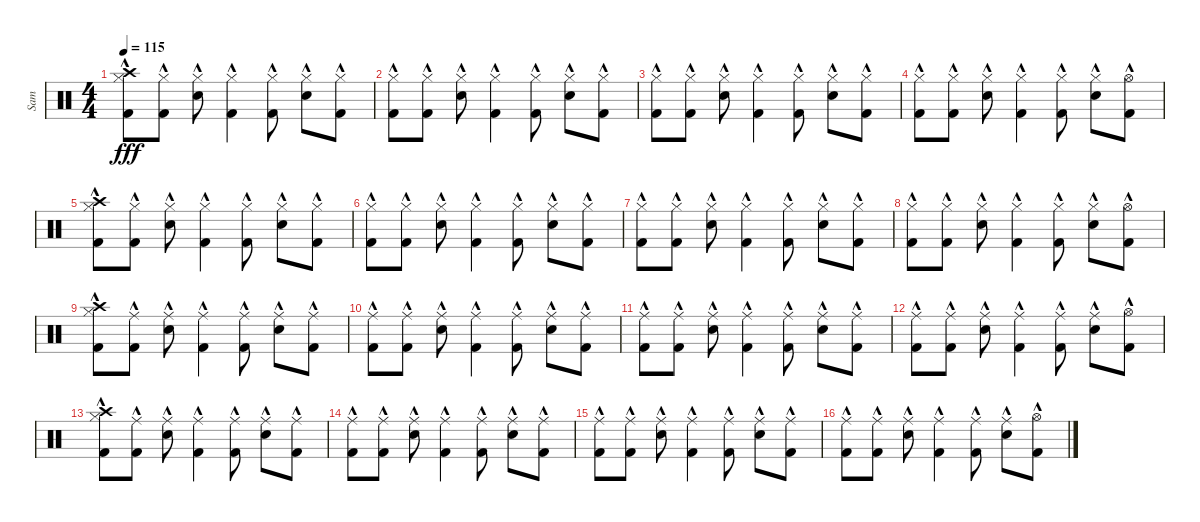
\track ("Sam" "Sam") {instrument percussion}
\staff {score}
\articulation defaults
\ts (4 4)
\tempo 115
\clef neutral
\ks c
("Crash high (hit)" "Hi-Hat (closed)" "Kick (hit) 2"{hac}).8{dy fff} ("Hi-Hat (closed)" "Kick (hit) 2"{hac}).8 ("Hi-Hat (closed)" "Electric Snare (hit)"{hac}).8 ("Hi-Hat (closed)" "Kick (hit) 2"{hac}).4 ("Hi-Hat (closed)" "Kick (hit) 2"{hac}).8 ("Hi-Hat (closed)" "Electric Snare (hit)"{hac}).8 ("Hi-Hat (closed)" "Kick (hit) 2"{hac}).8 |
("Hi-Hat (closed)" "Kick (hit) 2"{hac}).8 ("Hi-Hat (closed)" "Kick (hit) 2"{hac}).8 ("Hi-Hat (closed)" "Electric Snare (hit)"{hac}).8 ("Hi-Hat (closed)" "Kick (hit) 2"{hac}).4 ("Hi-Hat (closed)" "Kick (hit) 2"{hac}).8 ("Hi-Hat (closed)" "Electric Snare (hit)"{hac}).8 ("Hi-Hat (closed)" "Kick (hit) 2"{hac}).8 |
("Hi-Hat (closed)" "Kick (hit) 2"{hac}).8 ("Hi-Hat (closed)" "Kick (hit) 2"{hac}).8 ("Hi-Hat (closed)" "Electric Snare (hit)"{hac}).8 ("Hi-Hat (closed)" "Kick (hit) 2"{hac}).4 ("Hi-Hat (closed)" "Kick (hit) 2"{hac}).8 ("Hi-Hat (closed)" "Electric Snare (hit)"{hac}).8 ("Hi-Hat (closed)" "Kick (hit) 2"{hac}).8 |
("Hi-Hat (closed)" "Kick (hit) 2"{hac}).8 ("Hi-Hat (closed)" "Kick (hit) 2"{hac}).8 ("Hi-Hat (closed)" "Electric Snare (hit)"{hac}).8 ("Hi-Hat (closed)" "Kick (hit) 2"{hac}).4 ("Hi-Hat (closed)" "Kick (hit) 2"{hac}).8 ("Hi-Hat (closed)" "Electric Snare (hit)"{hac}).8 ("Hi-Hat (open)" "Kick (hit) 2"{hac}).8 |
("Crash high (hit)" "Hi-Hat (closed)" "Kick (hit) 2"{hac}).8 ("Hi-Hat (closed)" "Kick (hit) 2"{hac}).8 ("Hi-Hat (closed)" "Electric Snare (hit)"{hac}).8 ("Hi-Hat (closed)" "Kick (hit) 2"{hac}).4 ("Hi-Hat (closed)" "Kick (hit) 2"{hac}).8 ("Hi-Hat (closed)" "Electric Snare (hit)"{hac}).8 ("Hi-Hat (closed)" "Kick (hit) 2"{hac}).8 |
("Hi-Hat (closed)" "Kick (hit) 2"{hac}).8 ("Hi-Hat (closed)" "Kick (hit) 2"{hac}).8 ("Hi-Hat (closed)" "Electric Snare (hit)"{hac}).8 ("Hi-Hat (closed)" "Kick (hit) 2"{hac}).4 ("Hi-Hat (closed)" "Kick (hit) 2"{hac}).8 ("Hi-Hat (closed)" "Electric Snare (hit)"{hac}).8 ("Hi-Hat (closed)" "Kick (hit) 2"{hac}).8 |
("Hi-Hat (closed)" "Kick (hit) 2"{hac}).8 ("Hi-Hat (closed)" "Kick (hit) 2"{hac}).8 ("Hi-Hat (closed)" "Electric Snare (hit)"{hac}).8 ("Hi-Hat (closed)" "Kick (hit) 2"{hac}).4 ("Hi-Hat (closed)" "Kick (hit) 2"{hac}).8 ("Hi-Hat (closed)" "Electric Snare (hit)"{hac}).8 ("Hi-Hat (closed)" "Kick (hit) 2"{hac}).8 |
("Hi-Hat (closed)" "Kick (hit) 2"{hac}).8 ("Hi-Hat (closed)" "Kick (hit) 2"{hac}).8 ("Hi-Hat (closed)" "Electric Snare (hit)"{hac}).8 ("Hi-Hat (closed)" "Kick (hit) 2"{hac}).4 ("Hi-Hat (closed)" "Kick (hit) 2"{hac}).8 ("Hi-Hat (closed)" "Electric Snare (hit)"{hac}).8 ("Hi-Hat (open)" "Kick (hit) 2"{hac}).8 |
("Crash high (hit)" "Hi-Hat (closed)" "Kick (hit) 2"{hac}).8 ("Ride (middle)" "Kick (hit) 2"{hac}).8 ("Ride (middle)" "Electric Snare (hit)"{hac}).8 ("Ride (middle)" "Kick (hit) 2"{hac}).4 ("Ride (middle)" "Kick (hit) 2"{hac}).8 ("Ride (middle)" "Electric Snare (hit)"{hac}).8 ("Ride (middle)" "Kick (hit) 2"{hac}).8 |
("Ride (middle)" "Kick (hit) 2"{hac}).8 ("Ride (middle)" "Kick (hit) 2"{hac}).8 ("Ride (middle)" "Electric Snare (hit)"{hac}).8 ("Ride (middle)" "Kick (hit) 2"{hac}).4 ("Ride (middle)" "Kick (hit) 2"{hac}).8 ("Ride (middle)" "Electric Snare (hit)"{hac}).8 ("Ride (middle)" "Kick (hit) 2"{hac}).8 |
("Ride (middle)" "Kick (hit) 2"{hac}).8 ("Ride (middle)" "Kick (hit) 2"{hac}).8 ("Ride (middle)" "Electric Snare (hit)"{hac}).8 ("Ride (middle)" "Kick (hit) 2"{hac}).4 ("Ride (middle)" "Kick (hit) 2"{hac}).8 ("Ride (middle)" "Electric Snare (hit)"{hac}).8 ("Ride (middle)" "Kick (hit) 2"{hac}).8 |
("Ride (middle)" "Kick (hit) 2"{hac}).8 ("Ride (middle)" "Kick (hit) 2"{hac}).8 ("Ride (middle)" "Electric Snare (hit)"{hac}).8 ("Ride (middle)" "Kick (hit) 2"{hac}).4 ("Ride (middle)" "Kick (hit) 2"{hac}).8 ("Ride (middle)" "Electric Snare (hit)"{hac}).8 ("Hi-Hat (open)" "Kick (hit) 2"{hac}).8 |
("Crash high (hit)" "Hi-Hat (closed)" "Kick (hit) 2"{hac}).8 ("Ride (middle)" "Kick (hit) 2"{hac}).8 ("Ride (middle)" "Electric Snare (hit)"{hac}).8 ("Ride (middle)" "Kick (hit) 2"{hac}).4 ("Ride (middle)" "Kick (hit) 2"{hac}).8 ("Ride (middle)" "Electric Snare (hit)"{hac}).8 ("Ride (middle)" "Kick (hit) 2"{hac}).8 |
("Ride (middle)" "Kick (hit) 2"{hac}).8 ("Ride (middle)" "Kick (hit) 2"{hac}).8 ("Ride (middle)" "Electric Snare (hit)"{hac}).8 ("Ride (middle)" "Kick (hit) 2"{hac}).4 ("Ride (middle)" "Kick (hit) 2"{hac}).8 ("Ride (middle)" "Electric Snare (hit)"{hac}).8 ("Ride (middle)" "Kick (hit) 2"{hac}).8 |
("Ride (middle)" "Kick (hit) 2"{hac}).8 ("Ride (middle)" "Kick (hit) 2"{hac}).8 ("Ride (middle)" "Electric Snare (hit)"{hac}).8 ("Ride (middle)" "Kick (hit) 2"{hac}).4 ("Ride (middle)" "Kick (hit) 2"{hac}).8 ("Ride (middle)" "Electric Snare (hit)"{hac}).8 ("Ride (middle)" "Kick (hit) 2"{hac}).8 |
("Ride (middle)" "Kick (hit) 2"{hac}).8 ("Ride (middle)" "Kick (hit) 2"{hac}).8 ("Ride (middle)" "Electric Snare (hit)"{hac}).8 ("Ride (middle)" "Kick (hit) 2"{hac}).4 ("Ride (middle)" "Kick (hit) 2"{hac}).8 ("Ride (middle)" "Electric Snare (hit)"{hac}).8 ("Hi-Hat (open)" "Kick (hit) 2"{hac}).8
